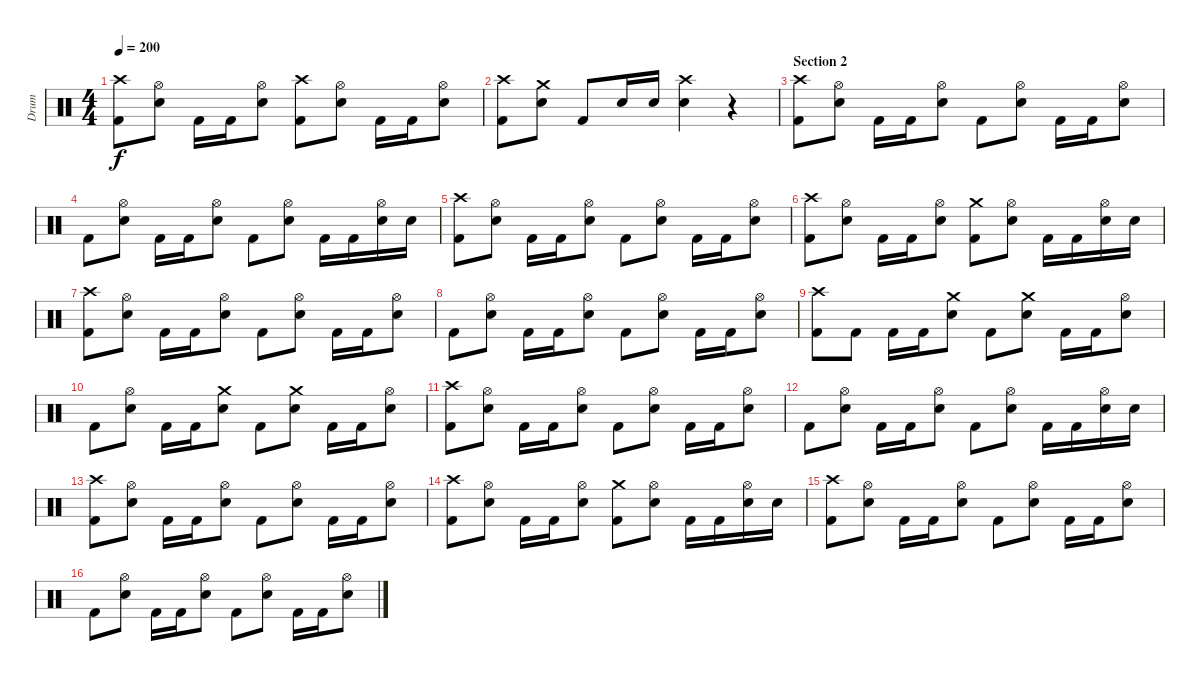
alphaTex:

\track ("Drum" "Drum") {instrument percussion}
\staff {score}
\articulation defaults
\ts (4 4)
\tempo 200
\clef neutral
\ks c
("Crash high (hit)" "Kick (hit) 2").8{dy f} ("Hi-Hat (open)" "Electric Snare (hit)").8 "Kick (hit) 2".16 "Kick (hit) 2".16 ("Hi-Hat (open)" "Electric Snare (hit)").8 ("Crash high (hit)" "Kick (hit) 2").8 ("Hi-Hat (open)" "Electric Snare (hit)").8 "Kick (hit) 2".16 "Kick (hit) 2".16 ("Hi-Hat (open)" "Electric Snare (hit)").8 |
("Crash high (hit)" "Kick (hit) 2").8 ("Crash medium (hit)" "Electric Snare (hit)").8 "Kick (hit) 2".8 "Electric Snare (hit)".16 "Electric Snare (hit)".16 ("Crash high (hit)" "Electric Snare (hit)").4 r.4 |
\section ("" "Section 2")
("Crash high (hit)" "Kick (hit) 2").8 ("Hi-Hat (open)" "Electric Snare (hit)").8 "Kick (hit) 2".16 "Kick (hit) 2".16 ("Hi-Hat (open)" "Electric Snare (hit)").8 "Kick (hit) 2".8 ("Hi-Hat (open)" "Electric Snare (hit)").8 "Kick (hit) 2".16 "Kick (hit) 2".16 ("Hi-Hat (open)" "Electric Snare (hit)").8 |
"Kick (hit) 2".8 ("Hi-Hat (open)" "Electric Snare (hit)").8 "Kick (hit) 2".16 "Kick (hit) 2".16 ("Hi-Hat (open)" "Electric Snare (hit)").8 "Kick (hit) 2".8 ("Hi-Hat (open)" "Electric Snare (hit)").8 "Kick (hit) 2".16 "Kick (hit) 2".16 ("Hi-Hat (open)" "Electric Snare (hit)").16 "Electric Snare (hit)".16 |
("Crash high (hit)" "Kick (hit) 2").8 ("Hi-Hat (open)" "Electric Snare (hit)").8 "Kick (hit) 2".16 "Kick (hit) 2".16 ("Hi-Hat (open)" "Electric Snare (hit)").8 "Kick (hit) 2".8 ("Hi-Hat (open)" "Electric Snare (hit)").8 "Kick (hit) 2".16 "Kick (hit) 2".16 ("Hi-Hat (open)" "Electric Snare (hit)").8 |
("Crash high (hit)" "Kick (hit) 2").8 ("Hi-Hat (open)" "Electric Snare (hit)").8 "Kick (hit) 2".16 "Kick (hit) 2".16 ("Hi-Hat (open)" "Electric Snare (hit)").8 ("Crash medium (hit)" "Kick (hit) 2").8 ("Hi-Hat (open)" "Electric Snare (hit)").8 "Kick (hit) 2".16 "Kick (hit) 2".16 ("Hi-Hat (open)" "Electric Snare (hit)").16 "Electric Snare (hit)".16 |
("Crash high (hit)" "Kick (hit) 2").8 ("Hi-Hat (open)" "Electric Snare (hit)").8 "Kick (hit) 2".16 "Kick (hit) 2".16 ("Hi-Hat (open)" "Electric Snare (hit)").8 "Kick (hit) 2".8 ("Hi-Hat (open)" "Electric Snare (hit)").8 "Kick (hit) 2".16 "Kick (hit) 2".16 ("Hi-Hat (open)" "Electric Snare (hit)").8 |
"Kick (hit) 2".8 ("Hi-Hat (open)" "Electric Snare (hit)").8 "Kick (hit) 2".16 "Kick (hit) 2".16 ("Hi-Hat (open)" "Electric Snare (hit)").8 "Kick (hit) 2".8 ("Hi-Hat (open)" "Electric Snare (hit)").8 "Kick (hit) 2".16 "Kick (hit) 2".16 ("Hi-Hat (open)" "Electric Snare (hit)").8 |
("Crash high (hit)" "Kick (hit) 2").8 "Kick (hit) 2".8 "Kick (hit) 2".16 "Kick (hit) 2".16 ("Crash medium (hit)" "Electric Snare (hit)").8 "Kick (hit) 2".8 ("Crash medium (hit)" "Electric Snare (hit)").8 "Kick (hit) 2".16 "Kick (hit) 2".16 ("Hi-Hat (open)" "Electric Snare (hit)").8 |
"Kick (hit) 2".8 ("Hi-Hat (open)" "Electric Snare (hit)").8 "Kick (hit) 2".16 "Kick (hit) 2".16 ("Crash medium (hit)" "Electric Snare (hit)").8 "Kick (hit) 2".8 ("Crash medium (hit)" "Electric Snare (hit)").8 "Kick (hit) 2".16 "Kick (hit) 2".16 ("Hi-Hat (open)" "Electric Snare (hit)").8 |
("Crash high (hit)" "Kick (hit) 2").8 ("Hi-Hat (open)" "Electric Snare (hit)").8 "Kick (hit) 2".16 "Kick (hit) 2".16 ("Hi-Hat (open)" "Electric Snare (hit)").8 "Kick (hit) 2".8 ("Hi-Hat (open)" "Electric Snare (hit)").8 "Kick (hit) 2".16 "Kick (hit) 2".16 ("Hi-Hat (open)" "Electric Snare (hit)").8 |
"Kick (hit) 2".8 ("Hi-Hat (open)" "Electric Snare (hit)").8 "Kick (hit) 2".16 "Kick (hit) 2".16 ("Hi-Hat (open)" "Electric Snare (hit)").8 "Kick (hit) 2".8 ("Hi-Hat (open)" "Electric Snare (hit)").8 "Kick (hit) 2".16 "Kick (hit) 2".16 ("Hi-Hat (open)" "Electric Snare (hit)").16 "Electric Snare (hit)".16 |
("Crash high (hit)" "Kick (hit) 2").8 ("Hi-Hat (open)" "Electric Snare (hit)").8 "Kick (hit) 2".16 "Kick (hit) 2".16 ("Hi-Hat (open)" "Electric Snare (hit)").8 "Kick (hit) 2".8 ("Hi-Hat (open)" "Electric Snare (hit)").8 "Kick (hit) 2".16 "Kick (hit) 2".16 ("Hi-Hat (open)" "Electric Snare (hit)").8 |
("Crash high (hit)" "Kick (hit) 2").8 ("Hi-Hat (open)" "Electric Snare (hit)").8 "Kick (hit) 2".16 "Kick (hit) 2".16 ("Hi-Hat (open)" "Electric Snare (hit)").8 ("Crash medium (hit)" "Kick (hit) 2").8 ("Hi-Hat (open)" "Electric Snare (hit)").8 "Kick (hit) 2".16 "Kick (hit) 2".16 ("Hi-Hat (open)" "Electric Snare (hit)").16 "Electric Snare (hit)".16 |
("Crash high (hit)" "Kick (hit) 2").8 ("Hi-Hat (open)" "Electric Snare (hit)").8 "Kick (hit) 2".16 "Kick (hit) 2".16 ("Hi-Hat (open)" "Electric Snare (hit)").8 "Kick (hit) 2".8 ("Hi-Hat (open)" "Electric Snare (hit)").8 "Kick (hit) 2".16 "Kick (hit) 2".16 ("Hi-Hat (open)" "Electric Snare (hit)").8 |
"Kick (hit) 2".8 ("Hi-Hat (open)" "Electric Snare (hit)").8 "Kick (hit) 2".16 "Kick (hit) 2".16 ("Hi-Hat (open)" "Electric Snare (hit)").8 "Kick (hit) 2".8 ("Hi-Hat (open)" "Electric Snare (hit)").8 "Kick (hit) 2".16 "Kick (hit) 2".16 ("Hi-Hat (open)" "Electric Snare (hit)").8
